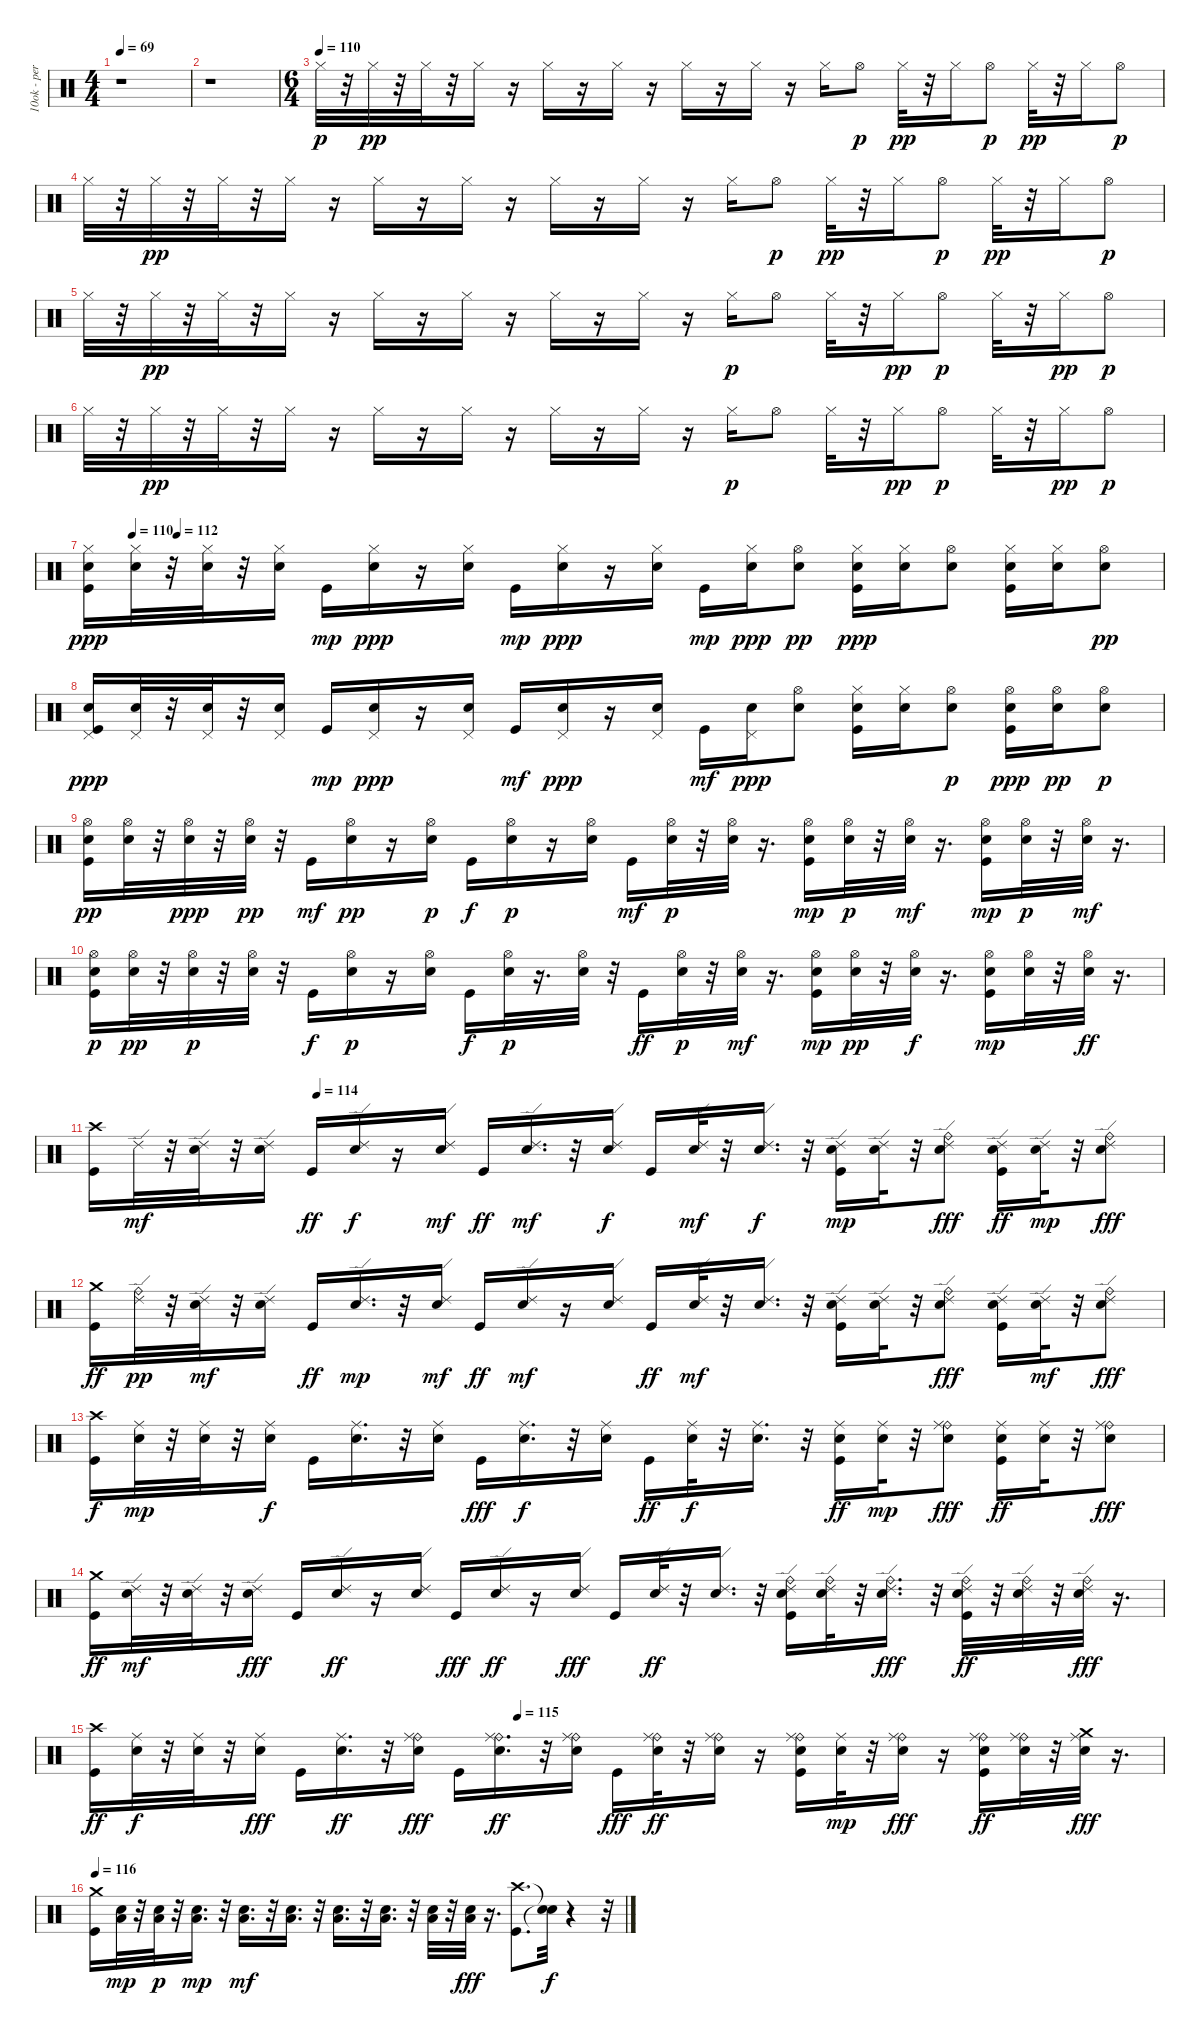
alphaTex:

\track ("10ok - percussioni" "10ok - per") {instrument percussion}
\staff {score}
\articulation defaults
\ts (4 4)
\tempo 69
\clef neutral
\ks c
r.1{dy p} |
r.1 |
\ts (6 4)
\tempo (110)
"Hi-Hat (closed)".32{balance 8} r.32 "Hi-Hat (closed)".32{dy pp} r.32 "Hi-Hat (closed)".32 r.32 "Hi-Hat (closed)".16 r.16 "Hi-Hat (closed)".16 r.16 "Hi-Hat (closed)".16 r.16 "Hi-Hat (closed)".16 r.16 "Hi-Hat (closed)".16 r.16 "Hi-Hat (closed)".16 "Hi-Hat (open)".8{dy p} "Hi-Hat (closed)".32{dy pp} r.32 "Hi-Hat (closed)".16 "Hi-Hat (open)".8{dy p} "Hi-Hat (closed)".32{dy pp} r.32 "Hi-Hat (closed)".16 "Hi-Hat (open)".8{dy p} |
"Hi-Hat (closed)".32 r.32 "Hi-Hat (closed)".32{dy pp} r.32 "Hi-Hat (closed)".32 r.32 "Hi-Hat (closed)".16 r.16 "Hi-Hat (closed)".16 r.16 "Hi-Hat (closed)".16 r.16 "Hi-Hat (closed)".16 r.16 "Hi-Hat (closed)".16 r.16 "Hi-Hat (closed)".16 "Hi-Hat (open)".8{dy p} "Hi-Hat (closed)".32{dy pp} r.32 "Hi-Hat (closed)".16 "Hi-Hat (open)".8{dy p} "Hi-Hat (closed)".32{dy pp} r.32 "Hi-Hat (closed)".16 "Hi-Hat (open)".8{dy p} |
"Hi-Hat (closed)".32 r.32 "Hi-Hat (closed)".32{dy pp} r.32 "Hi-Hat (closed)".32 r.32 "Hi-Hat (closed)".16 r.16 "Hi-Hat (closed)".16 r.16 "Hi-Hat (closed)".16 r.16 "Hi-Hat (closed)".16 r.16 "Hi-Hat (closed)".16 r.16 "Hi-Hat (closed)".16{dy p} "Hi-Hat (open)".8 "Hi-Hat (closed)".32 r.32 "Hi-Hat (closed)".16{dy pp} "Hi-Hat (open)".8{dy p} "Hi-Hat (closed)".32 r.32 "Hi-Hat (closed)".16{dy pp} "Hi-Hat (open)".8{dy p} |
"Hi-Hat (closed)".32 r.32 "Hi-Hat (closed)".32{dy pp} r.32 "Hi-Hat (closed)".32 r.32 "Hi-Hat (closed)".16 r.16 "Hi-Hat (closed)".16 r.16 "Hi-Hat (closed)".16 r.16 "Hi-Hat (closed)".16 r.16 "Hi-Hat (closed)".16 r.16 "Hi-Hat (closed)".16{dy p} "Hi-Hat (open)".8 "Hi-Hat (closed)".32 r.32 "Hi-Hat (closed)".16{dy pp} "Hi-Hat (open)".8{dy p} "Hi-Hat (closed)".32 r.32 "Hi-Hat (closed)".16{dy pp} "Hi-Hat (open)".8{dy p} |
\tempo (110 0.041666666666666664)
\tempo (112 0.08333333333333333)
("Snare (hit) 2" "Kick (hit)" "Hi-Hat (closed)").16{dy ppp} ("Snare (hit) 2" "Hi-Hat (closed)").32 r.32 ("Snare (hit) 2" "Hi-Hat (closed)").32 r.32 ("Snare (hit) 2" "Hi-Hat (closed)").16 "Kick (hit)".16{dy mp} ("Snare (hit) 2" "Hi-Hat (closed)").16{dy ppp} r.16 ("Snare (hit) 2" "Hi-Hat (closed)").16 "Kick (hit)".16{dy mp} ("Snare (hit) 2" "Hi-Hat (closed)").16{dy ppp} r.16 ("Snare (hit) 2" "Hi-Hat (closed)").16 "Kick (hit)".16{dy mp} ("Snare (hit) 2" "Hi-Hat (closed)").16{dy ppp} ("Snare (hit) 2" "Hi-Hat (open)").8{dy pp} ("Snare (hit) 2" "Kick (hit)" "Hi-Hat (closed)").16{dy ppp} ("Snare (hit) 2" "Hi-Hat (closed)").16 ("Snare (hit) 2" "Hi-Hat (open)").8 ("Snare (hit) 2" "Kick (hit)" "Hi-Hat (closed)").16 ("Snare (hit) 2" "Hi-Hat (closed)").16 ("Snare (hit) 2" "Hi-Hat (open)").8{dy pp} |
("Snare (hit) 2" "Kick (hit)" "Pedal Hi-Hat (hit)").16{dy ppp} ("Snare (hit) 2" "Pedal Hi-Hat (hit)").32 r.32 ("Snare (hit) 2" "Pedal Hi-Hat (hit)").32 r.32 ("Snare (hit) 2" "Pedal Hi-Hat (hit)").16 "Kick (hit)".16{dy mp} ("Snare (hit) 2" "Pedal Hi-Hat (hit)").16{dy ppp} r.16 ("Snare (hit) 2" "Pedal Hi-Hat (hit)").16 "Kick (hit)".16{dy mf} ("Snare (hit) 2" "Pedal Hi-Hat (hit)").16{dy ppp} r.16 ("Snare (hit) 2" "Pedal Hi-Hat (hit)").16 "Kick (hit)".16{dy mf} ("Snare (hit) 2" "Pedal Hi-Hat (hit)").16{dy ppp} ("Snare (hit) 2" "Hi-Hat (open)").8 ("Snare (hit) 2" "Kick (hit)" "Hi-Hat (closed)").16 ("Snare (hit) 2" "Hi-Hat (closed)").16 ("Snare (hit) 2" "Hi-Hat (open)").8{dy p} ("Snare (hit) 2" "Kick (hit)" "Hi-Hat (open)").16{dy ppp} ("Snare (hit) 2" "Hi-Hat (open)").16{dy pp} ("Snare (hit) 2" "Hi-Hat (open)").8{dy p} |
("Snare (hit) 2" "Kick (hit)" "Hi-Hat (open)").16{dy pp} ("Snare (hit) 2" "Hi-Hat (open)").32 r.32 ("Snare (hit) 2" "Hi-Hat (open)").32{dy ppp} r.32 ("Snare (hit) 2" "Hi-Hat (open)").32{dy pp} r.32 "Kick (hit)".16{dy mf} ("Snare (hit) 2" "Hi-Hat (open)").16{dy pp} r.16 ("Snare (hit) 2" "Hi-Hat (open)").16{dy p} "Kick (hit)".16{dy f} ("Snare (hit) 2" "Hi-Hat (open)").16{dy p} r.16 ("Snare (hit) 2" "Hi-Hat (open)").16 "Kick (hit)".16{dy mf} ("Snare (hit) 2" "Hi-Hat (open)").32{dy p} r.32 ("Snare (hit) 2" "Hi-Hat (open)").32 r.16{d} ("Snare (hit) 2" "Kick (hit)" "Hi-Hat (open)").16{dy mp} ("Snare (hit) 2" "Hi-Hat (open)").32{dy p} r.32 ("Snare (hit) 2" "Hi-Hat (open)").32{dy mf} r.16{d} ("Snare (hit) 2" "Kick (hit)" "Hi-Hat (open)").16{dy mp} ("Snare (hit) 2" "Hi-Hat (open)").32{dy p} r.32 ("Snare (hit) 2" "Hi-Hat (open)").32{dy mf} r.16{d} |
("Snare (hit) 2" "Kick (hit)" "Hi-Hat (open)").16{dy p} ("Snare (hit) 2" "Hi-Hat (open)").32{dy pp} r.32 ("Snare (hit) 2" "Hi-Hat (open)").32{dy p} r.32 ("Snare (hit) 2" "Hi-Hat (open)").32 r.32 "Kick (hit)".16{dy f} ("Snare (hit) 2" "Hi-Hat (open)").16{dy p} r.16 ("Snare (hit) 2" "Hi-Hat (open)").16 "Kick (hit)".16{dy f} ("Snare (hit) 2" "Hi-Hat (open)").32{dy p} r.16{d} ("Snare (hit) 2" "Hi-Hat (open)").32 r.32 "Kick (hit)".16{dy ff} ("Snare (hit) 2" "Hi-Hat (open)").32{dy p} r.32 ("Snare (hit) 2" "Hi-Hat (open)").32{dy mf} r.16{d} ("Snare (hit) 2" "Kick (hit)" "Hi-Hat (open)").16{dy mp} ("Snare (hit) 2" "Hi-Hat (open)").32{dy pp} r.32 ("Snare (hit) 2" "Hi-Hat (open)").32{dy f} r.16{d} ("Snare (hit) 2" "Kick (hit)" "Hi-Hat (open)").16{dy mp} ("Snare (hit) 2" "Hi-Hat (open)").32 r.32 ("Snare (hit) 2" "Hi-Hat (open)").32{dy ff} r.16{d} |
\tempo (114 0.20833333333333334)
("Kick (hit)" "Crash high (hit)").16 "Ride (edge) 2".32{dy mf} r.32 ("Snare (hit) 2" "Ride (edge) 2").32 r.32 ("Snare (hit) 2" "Ride (edge) 2").16 "Kick (hit)".16{dy ff} ("Snare (hit) 2" "Ride (edge) 2").16{dy f} r.16 ("Snare (hit) 2" "Ride (edge) 2").16{dy mf} "Kick (hit)".16{dy ff} ("Snare (hit) 2" "Ride (edge) 2").16{d dy mf} r.32 ("Snare (hit) 2" "Ride (edge) 2").16{dy f} "Kick (hit)".16 ("Snare (hit) 2" "Ride (edge) 2").32{dy mf} r.32 ("Snare (hit) 2" "Ride (edge) 2").16{d dy f} r.32 ("Snare (hit) 2" "Kick (hit)" "Ride (edge) 2").16{dy mp} ("Snare (hit) 2" "Ride (edge) 2").32 r.32 ("Snare (hit) 2" "Ride (bell)" "Ride (edge) 2").8{dy fff} ("Snare (hit) 2" "Kick (hit)" "Ride (edge) 2").16{dy ff} ("Snare (hit) 2" "Ride (edge) 2").32{dy mp} r.32 ("Snare (hit) 2" "Ride (bell)" "Ride (edge) 2").8{dy fff} |
("Kick (hit)" "Crash medium (hit)").16{dy ff} ("Ride (bell)" "Ride (edge) 2").32{dy pp} r.32 ("Snare (hit) 2" "Ride (edge) 2").32{dy mf} r.32 ("Snare (hit) 2" "Ride (edge) 2").16 "Kick (hit)".16{dy ff} ("Snare (hit) 2" "Ride (edge) 2").16{d dy mp} r.32 ("Snare (hit) 2" "Ride (edge) 2").16{dy mf} "Kick (hit)".16{dy ff} ("Snare (hit) 2" "Ride (edge) 2").16{dy mf} r.16 ("Snare (hit) 2" "Ride (edge) 2").16 "Kick (hit)".16{dy ff} ("Snare (hit) 2" "Ride (edge) 2").32{dy mf} r.32 ("Snare (hit) 2" "Ride (edge) 2").16{d} r.32 ("Snare (hit) 2" "Kick (hit)" "Ride (edge) 2").16 ("Snare (hit) 2" "Ride (edge) 2").32 r.32 ("Snare (hit) 2" "Ride (bell)" "Ride (edge) 2").8{dy fff} ("Snare (hit) 2" "Kick (hit)" "Ride (edge) 2").16 ("Snare (hit) 2" "Ride (edge) 2").32{dy mf} r.32 ("Snare (hit) 2" "Ride (bell)" "Ride (edge) 2").8{dy fff} |
("Kick (hit)" "Crash high (hit)").16{dy f} ("Snare (hit) 2" "Ride (middle)").32{dy mp} r.32 ("Snare (hit) 2" "Ride (middle)").32 r.32 ("Snare (hit) 2" "Ride (middle)").16{dy f} "Kick (hit)".16 ("Snare (hit) 2" "Ride (middle)").16{d} r.32 ("Snare (hit) 2" "Ride (middle)").16 "Kick (hit)".16{dy fff} ("Snare (hit) 2" "Ride (middle)").16{d dy f} r.32 ("Snare (hit) 2" "Ride (middle)").16 "Kick (hit)".16{dy ff} ("Snare (hit) 2" "Ride (middle)").32{dy f} r.32 ("Snare (hit) 2" "Ride (middle)").16{d} r.32 ("Snare (hit) 2" "Kick (hit)" "Ride (middle)").16{dy ff} ("Snare (hit) 2" "Ride (middle)").32{dy mp} r.32 ("Snare (hit) 2" "Ride (bell)" "Ride (middle)").8{dy fff} ("Snare (hit) 2" "Kick (hit)" "Ride (middle)").16{dy ff} ("Snare (hit) 2" "Ride (middle)").32 r.32 ("Snare (hit) 2" "Ride (bell)" "Ride (middle)").8{dy fff} |
("Kick (hit)" "Crash medium (hit)").16{dy ff} ("Snare (hit) 2" "Ride (edge) 2").32{dy mf} r.32 ("Snare (hit) 2" "Ride (edge) 2").32 r.32 ("Snare (hit) 2" "Ride (edge) 2").16{dy fff} "Kick (hit)".16 ("Snare (hit) 2" "Ride (edge) 2").16{dy ff} r.16 ("Snare (hit) 2" "Ride (edge) 2").16 "Kick (hit)".16{dy fff} ("Snare (hit) 2" "Ride (edge) 2").16{dy ff} r.16 ("Snare (hit) 2" "Ride (edge) 2").16{dy fff} "Kick (hit)".16 ("Snare (hit) 2" "Ride (edge) 2").32{dy ff} r.32 ("Snare (hit) 2" "Ride (edge) 2").16{d} r.32 ("Snare (hit) 2" "Kick (hit)" "Ride (bell)" "Ride (edge) 2").16 ("Snare (hit) 2" "Ride (bell)" "Ride (edge) 2").32 r.32 ("Snare (hit) 2" "Ride (bell)" "Ride (edge) 2").16{d dy fff} r.32 ("Snare (hit) 2" "Kick (hit)" "Ride (bell)" "Ride (edge) 2").32{dy ff} r.32 ("Snare (hit) 2" "Ride (bell)" "Ride (edge) 2").32 r.32 ("Snare (hit) 2" "Ride (bell)" "Ride (edge) 2").32{dy fff} r.16{d} |
\tempo (115 0.3958333333333333)
("Kick (hit)" "Crash high (hit)").16{dy ff} ("Snare (hit) 2" "Ride (middle)").32{dy f} r.32 ("Snare (hit) 2" "Ride (middle)").32 r.32 ("Snare (hit) 2" "Ride (middle)").16{dy fff} "Kick (hit)".16 ("Snare (hit) 2" "Ride (middle)").16{d dy ff} r.32 ("Snare (hit) 2" "Ride (bell)" "Ride (middle)").16{dy fff} "Kick (hit)".16 ("Snare (hit) 2" "Ride (bell)" "Ride (middle)").16{d dy ff} r.32 ("Snare (hit) 2" "Ride (bell)" "Ride (middle)").16 "Kick (hit)".16{dy fff} ("Snare (hit) 2" "Ride (bell)" "Ride (middle)").32{dy ff} r.32 ("Snare (hit) 2" "Ride (bell)" "Ride (middle)").16 r.16 ("Snare (hit) 2" "Kick (hit)" "Ride (bell)" "Ride (middle)").16 ("Snare (hit) 2" "Ride (middle)").32{dy mp} r.32 ("Snare (hit) 2" "Ride (bell)" "Ride (middle)").16{dy fff} r.16 ("Snare (hit) 2" "Kick (hit)" "Ride (bell)" "Ride (middle)").16{dy ff} ("Snare (hit) 2" "Ride (bell)" "Ride (middle)").32 r.32 ("Snare (hit) 2" "Crash medium (hit)" "Ride (middle)").32{dy fff} r.16{d} |
\tempo 116
("Kick (hit)" "Crash medium (hit)").16 ("Snare (hit) 2" "Low Floor Tom (hit)").32{dy mp} r.32 ("Snare (hit) 2" "Low Floor Tom (hit)").32{dy p} r.32 ("Snare (hit) 2" "Low Floor Tom (hit)").16{d dy mp} r.32 ("Snare (hit) 2" "Low Floor Tom (hit)").16{d dy mf} r.32 ("Snare (hit) 2" "Low Floor Tom (hit)").16{d} r.32 ("Snare (hit) 2" "Low Floor Tom (hit)").16{d} r.32 ("Snare (hit) 2" "Low Floor Tom (hit)").16{d} r.32 ("Snare (hit) 2" "Low Floor Tom (hit)").32 r.32 ("Snare (hit) 2" "Low Floor Tom (hit)").32{dy fff} r.16{d} ("Kick (hit)" "Crash high (hit)").8{d} ("Snare (hit)"{t} "Snare (hit)"{t}).32{dy f} r.4 r.32
